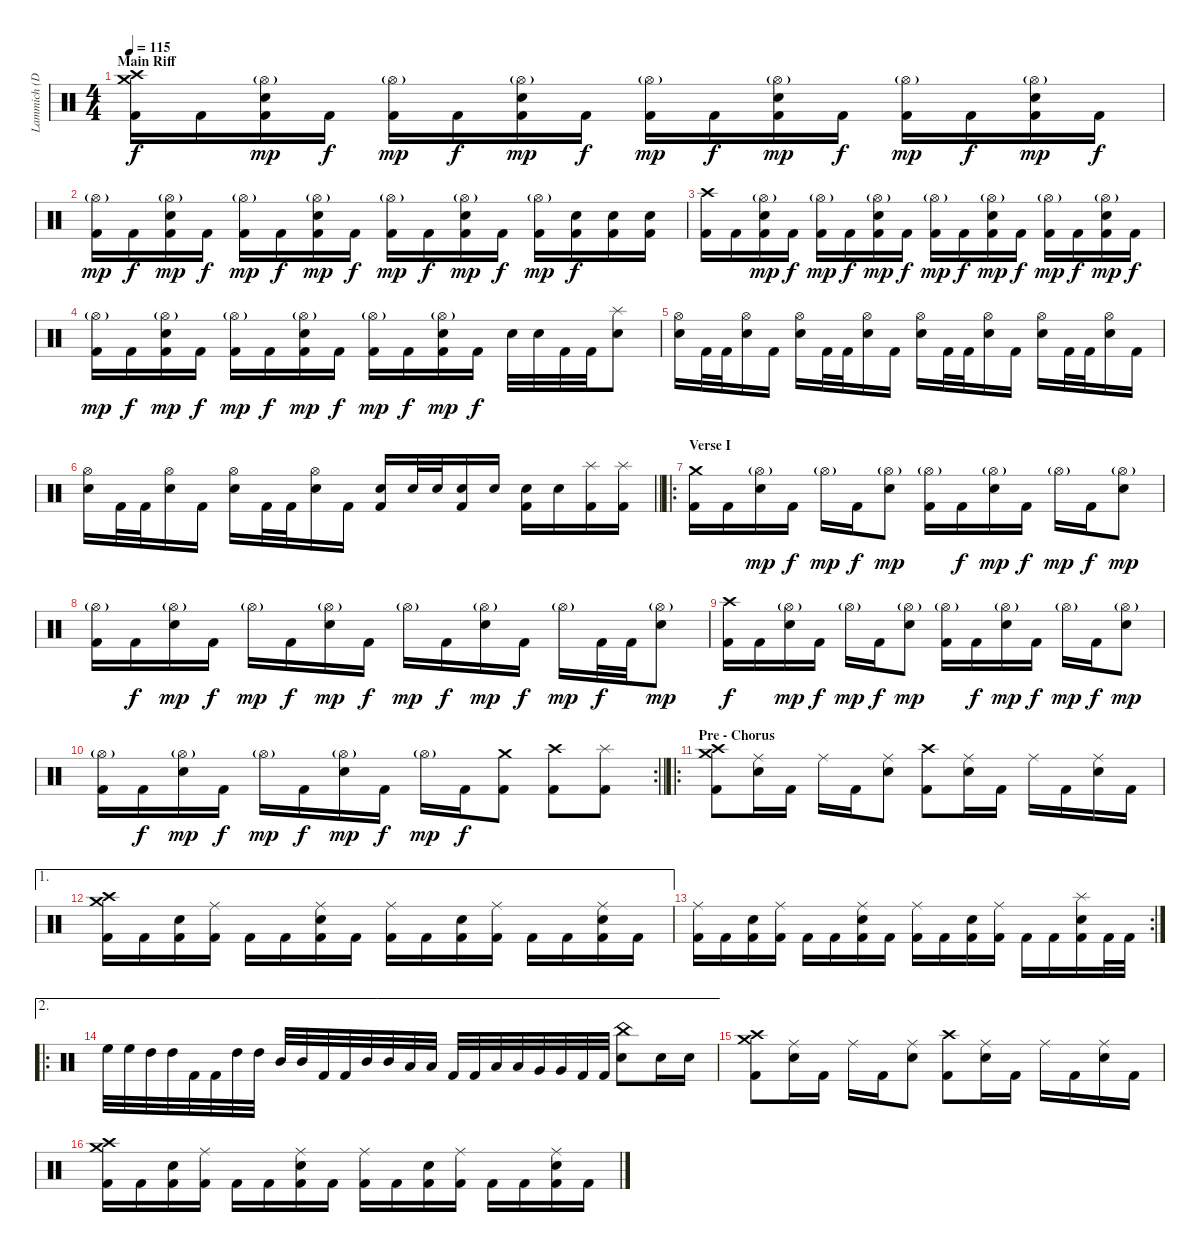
\track ("Lammich (Drums)" "Lammich (D") {instrument percussion}
\staff {score}
\articulation defaults
\ts (4 4)
\section ("" "Main Riff")
\tempo 115
\clef neutral
\ks c
("Crash medium (hit)" "Crash high (hit)" "Kick (hit) 2").16{dy f} "Kick (hit) 2".16 ("Hi-Hat (open)"{g} "Electric Snare (hit)" "Kick (hit) 2").16{dy mp} "Kick (hit) 2".16{dy f} ("Hi-Hat (open)"{g} "Kick (hit) 2").16{dy mp} "Kick (hit) 2".16{dy f} ("Hi-Hat (open)"{g} "Electric Snare (hit)" "Kick (hit) 2").16{dy mp} "Kick (hit) 2".16{dy f} ("Hi-Hat (open)"{g} "Kick (hit) 2").16{dy mp} "Kick (hit) 2".16{dy f} ("Hi-Hat (open)"{g} "Electric Snare (hit)" "Kick (hit) 2").16{dy mp} "Kick (hit) 2".16{dy f} ("Hi-Hat (open)"{g} "Kick (hit) 2").16{dy mp} "Kick (hit) 2".16{dy f} ("Hi-Hat (open)"{g} "Electric Snare (hit)" "Kick (hit) 2").16{dy mp} "Kick (hit) 2".16{dy f} |
("Hi-Hat (open)"{g} "Kick (hit) 2").16{dy mp} "Kick (hit) 2".16{dy f} ("Hi-Hat (open)"{g} "Electric Snare (hit)" "Kick (hit) 2").16{dy mp} "Kick (hit) 2".16{dy f} ("Hi-Hat (open)"{g} "Kick (hit) 2").16{dy mp} "Kick (hit) 2".16{dy f} ("Hi-Hat (open)"{g} "Electric Snare (hit)" "Kick (hit) 2").16{dy mp} "Kick (hit) 2".16{dy f} ("Hi-Hat (open)"{g} "Kick (hit) 2").16{dy mp} "Kick (hit) 2".16{dy f} ("Hi-Hat (open)"{g} "Electric Snare (hit)" "Kick (hit) 2").16{dy mp} "Kick (hit) 2".16{dy f} ("Hi-Hat (open)"{g} "Kick (hit) 2").16{dy mp} ("Electric Snare (hit)" "Kick (hit) 2").16{dy f} ("Electric Snare (hit)" "Kick (hit) 2").16 ("Electric Snare (hit)" "Kick (hit) 2").16 |
("Crash high (hit)" "Kick (hit) 2").16 "Kick (hit) 2".16 ("Hi-Hat (open)"{g} "Electric Snare (hit)" "Kick (hit) 2").16{dy mp} "Kick (hit) 2".16{dy f} ("Hi-Hat (open)"{g} "Kick (hit) 2").16{dy mp} "Kick (hit) 2".16{dy f} ("Hi-Hat (open)"{g} "Electric Snare (hit)" "Kick (hit) 2").16{dy mp} "Kick (hit) 2".16{dy f} ("Hi-Hat (open)"{g} "Kick (hit) 2").16{dy mp} "Kick (hit) 2".16{dy f} ("Hi-Hat (open)"{g} "Electric Snare (hit)" "Kick (hit) 2").16{dy mp} "Kick (hit) 2".16{dy f} ("Hi-Hat (open)"{g} "Kick (hit) 2").16{dy mp} "Kick (hit) 2".16{dy f} ("Hi-Hat (open)"{g} "Electric Snare (hit)" "Kick (hit) 2").16{dy mp} "Kick (hit) 2".16{dy f} |
("Hi-Hat (open)"{g} "Kick (hit) 2").16{dy mp} "Kick (hit) 2".16{dy f} ("Hi-Hat (open)"{g} "Electric Snare (hit)" "Kick (hit) 2").16{dy mp} "Kick (hit) 2".16{dy f} ("Hi-Hat (open)"{g} "Kick (hit) 2").16{dy mp} "Kick (hit) 2".16{dy f} ("Hi-Hat (open)"{g} "Electric Snare (hit)" "Kick (hit) 2").16{dy mp} "Kick (hit) 2".16{dy f} ("Hi-Hat (open)"{g} "Kick (hit) 2").16{dy mp} "Kick (hit) 2".16{dy f} ("Hi-Hat (open)"{g} "Electric Snare (hit)" "Kick (hit) 2").16{dy mp} "Kick (hit) 2".16{dy f} "Electric Snare (hit)".32 "Electric Snare (hit)".32 "Kick (hit) 2".32 "Kick (hit) 2".32 ("Splash (hit)" "Electric Snare (hit)").8 |
("Hi-Hat (open)" "Electric Snare (hit)").16 "Kick (hit) 2".32 "Kick (hit) 2".32 ("Hi-Hat (open)" "Electric Snare (hit)").16 "Kick (hit) 2".16 ("Hi-Hat (open)" "Electric Snare (hit)").16 "Kick (hit) 2".32 "Kick (hit) 2".32 ("Hi-Hat (open)" "Electric Snare (hit)").16 "Kick (hit) 2".16 ("Hi-Hat (open)" "Electric Snare (hit)").16 "Kick (hit) 2".32 "Kick (hit) 2".32 ("Hi-Hat (open)" "Electric Snare (hit)").16 "Kick (hit) 2".16 ("Hi-Hat (open)" "Electric Snare (hit)").16 "Kick (hit) 2".32 "Kick (hit) 2".32 ("Hi-Hat (open)" "Electric Snare (hit)").16 "Kick (hit) 2".16 |
\barLineRight lightlight
("Hi-Hat (open)" "Electric Snare (hit)").16 "Kick (hit) 2".32 "Kick (hit) 2".32 ("Hi-Hat (open)" "Electric Snare (hit)").16 "Kick (hit) 2".16 ("Hi-Hat (open)" "Electric Snare (hit)").16 "Kick (hit) 2".32 "Kick (hit) 2".32 ("Hi-Hat (open)" "Electric Snare (hit)").16 "Kick (hit) 2".16 ("Electric Snare (hit)" "Kick (hit) 2").16 "Electric Snare (hit)".32 "Electric Snare (hit)".32 ("Electric Snare (hit)" "Kick (hit) 2").16 "Electric Snare (hit)".16 ("Electric Snare (hit)" "Kick (hit) 2").16 "Electric Snare (hit)".16 ("Splash (hit)" "Kick (hit) 2").16 ("Splash (hit)" "Kick (hit) 2").16 |
\ro
\section ("" "Verse I")
("Crash medium (hit)" "Kick (hit) 2").16 "Kick (hit) 2".16 ("Hi-Hat (open)"{g} "Electric Snare (hit)").16{dy mp} "Kick (hit) 2".16{dy f} "Hi-Hat (open)"{g}.16{dy mp} "Kick (hit) 2".16{dy f} ("Hi-Hat (open)"{g} "Electric Snare (hit)").8{dy mp} ("Hi-Hat (open)"{g} "Kick (hit) 2").16 "Kick (hit) 2".16{dy f} ("Hi-Hat (open)"{g} "Electric Snare (hit)").16{dy mp} "Kick (hit) 2".16{dy f} "Hi-Hat (open)"{g}.16{dy mp} "Kick (hit) 2".16{dy f} ("Hi-Hat (open)"{g} "Electric Snare (hit)").8{dy mp} |
("Hi-Hat (open)"{g} "Kick (hit) 2").16 "Kick (hit) 2".16{dy f} ("Hi-Hat (open)"{g} "Electric Snare (hit)").16{dy mp} "Kick (hit) 2".16{dy f} "Hi-Hat (open)"{g}.16{dy mp} "Kick (hit) 2".16{dy f} ("Hi-Hat (open)"{g} "Electric Snare (hit)").16{dy mp} "Kick (hit) 2".16{dy f} "Hi-Hat (open)"{g}.16{dy mp} "Kick (hit) 2".16{dy f} ("Hi-Hat (open)"{g} "Electric Snare (hit)").16{dy mp} "Kick (hit) 2".16{dy f} "Hi-Hat (open)"{g}.16{dy mp} "Kick (hit) 2".32{dy f} "Kick (hit) 2".32 ("Hi-Hat (open)"{g} "Electric Snare (hit)").8{dy mp} |
("Crash high (hit)" "Kick (hit) 2").16{dy f} "Kick (hit) 2".16 ("Hi-Hat (open)"{g} "Electric Snare (hit)").16{dy mp} "Kick (hit) 2".16{dy f} "Hi-Hat (open)"{g}.16{dy mp} "Kick (hit) 2".16{dy f} ("Hi-Hat (open)"{g} "Electric Snare (hit)").8{dy mp} ("Hi-Hat (open)"{g} "Kick (hit) 2").16 "Kick (hit) 2".16{dy f} ("Hi-Hat (open)"{g} "Electric Snare (hit)").16{dy mp} "Kick (hit) 2".16{dy f} "Hi-Hat (open)"{g}.16{dy mp} "Kick (hit) 2".16{dy f} ("Hi-Hat (open)"{g} "Electric Snare (hit)").8{dy mp} |
\rc 2
\barLineRight lightlight
("Hi-Hat (open)"{g} "Kick (hit) 2").16 "Kick (hit) 2".16{dy f} ("Hi-Hat (open)"{g} "Electric Snare (hit)").16{dy mp} "Kick (hit) 2".16{dy f} "Hi-Hat (open)"{g}.16{dy mp} "Kick (hit) 2".16{dy f} ("Hi-Hat (open)"{g} "Electric Snare (hit)").16{dy mp} "Kick (hit) 2".16{dy f} "Hi-Hat (open)"{g}.16{dy mp} "Kick (hit) 2".16{dy f} ("Crash medium (hit)" "Kick (hit) 2").8 ("Crash high (hit)" "Kick (hit) 2").8 ("Splash (hit)" "Kick (hit) 2").8 |
\ro
\section ("" "Pre - Chorus")
("Crash medium (hit)" "Crash high (hit)" "Kick (hit) 2").8 ("Ride (middle)" "Electric Snare (hit)").16 "Kick (hit) 2".16 "Ride (middle)".16 "Kick (hit) 2".16 ("Ride (middle)" "Electric Snare (hit)").8 ("Crash high (hit)" "Kick (hit) 2").8 ("Ride (middle)" "Electric Snare (hit)").16 "Kick (hit) 2".16 "Ride (middle)".16 "Kick (hit) 2".16 ("Ride (middle)" "Electric Snare (hit)").16 "Kick (hit) 2".16 |
\ae 1
("Crash medium (hit)" "Crash high (hit)" "Kick (hit) 2").16 "Kick (hit) 2".16 ("Electric Snare (hit)" "Kick (hit) 2").16 ("Ride (middle)" "Kick (hit) 2").16 "Kick (hit) 2".16 "Kick (hit) 2".16 ("Ride (middle)" "Electric Snare (hit)" "Kick (hit) 2").16 "Kick (hit) 2".16 ("Ride (middle)" "Kick (hit) 2").16 "Kick (hit) 2".16 ("Electric Snare (hit)" "Kick (hit) 2").16 ("Ride (middle)" "Kick (hit) 2").16 "Kick (hit) 2".16 "Kick (hit) 2".16 ("Ride (middle)" "Electric Snare (hit)" "Kick (hit) 2").16 "Kick (hit) 2".16 |
\rc 2
("Ride (middle)" "Kick (hit) 2").16 "Kick (hit) 2".16 ("Electric Snare (hit)" "Kick (hit) 2").16 ("Ride (middle)" "Kick (hit) 2").16 "Kick (hit) 2".16 "Kick (hit) 2".16 ("Ride (middle)" "Electric Snare (hit)" "Kick (hit) 2").16 "Kick (hit) 2".16 ("Ride (middle)" "Kick (hit) 2").16 "Kick (hit) 2".16 ("Electric Snare (hit)" "Kick (hit) 2").16 ("Ride (middle)" "Kick (hit) 2").16 "Kick (hit) 2".16 "Kick (hit) 2".16 ("Splash (hit)" "Electric Snare (hit)" "Kick (hit) 2").16 "Kick (hit) 2".32 "Kick (hit) 2".32 |
\ae 2
\ro "High Floor Tom (hit)".32 "High Floor Tom (hit)".32 "High Tom (hit)".32 "High Tom (hit)".32 "Kick (hit) 2".32 "Kick (hit) 2".32 "High Tom (hit)".32 "High Tom (hit)".32 "Mid Tom (hit)".32 "Mid Tom (hit)".32 "Kick (hit) 2".32 "Kick (hit) 2".32 "Mid Tom (hit)".32 "Mid Tom (hit)".32 "Low Tom (hit)".32 "Low Tom (hit)".32 "Kick (hit) 2".32 "Kick (hit) 2".32 "Low Tom (hit)".32 "Low Tom (hit)".32 "Very Low Tom (hit)".32 "Very Low Tom (hit)".32 "Kick (hit) 2".32 "Kick (hit) 2".32
("China (hit)" "Electric Snare (hit)").8 "Electric Snare (hit)".16 "Electric Snare (hit)".16 |
("Crash medium (hit)" "Crash high (hit)" "Kick (hit) 2").8 ("Ride (middle)" "Electric Snare (hit)").16 "Kick (hit) 2".16 "Ride (middle)".16 "Kick (hit) 2".16 ("Ride (middle)" "Electric Snare (hit)").8 ("Crash high (hit)" "Kick (hit) 2").8 ("Ride (middle)" "Electric Snare (hit)").16 "Kick (hit) 2".16 "Ride (middle)".16 "Kick (hit) 2".16 ("Ride (middle)" "Electric Snare (hit)").16 "Kick (hit) 2".16 |
("Crash medium (hit)" "Crash high (hit)" "Kick (hit) 2").16 "Kick (hit) 2".16 ("Electric Snare (hit)" "Kick (hit) 2").16 ("Ride (middle)" "Kick (hit) 2").16 "Kick (hit) 2".16 "Kick (hit) 2".16 ("Ride (middle)" "Electric Snare (hit)" "Kick (hit) 2").16 "Kick (hit) 2".16 ("Ride (middle)" "Kick (hit) 2").16 "Kick (hit) 2".16 ("Electric Snare (hit)" "Kick (hit) 2").16 ("Ride (middle)" "Kick (hit) 2").16 "Kick (hit) 2".16 "Kick (hit) 2".16 ("Ride (middle)" "Electric Snare (hit)" "Kick (hit) 2").16 "Kick (hit) 2".16
